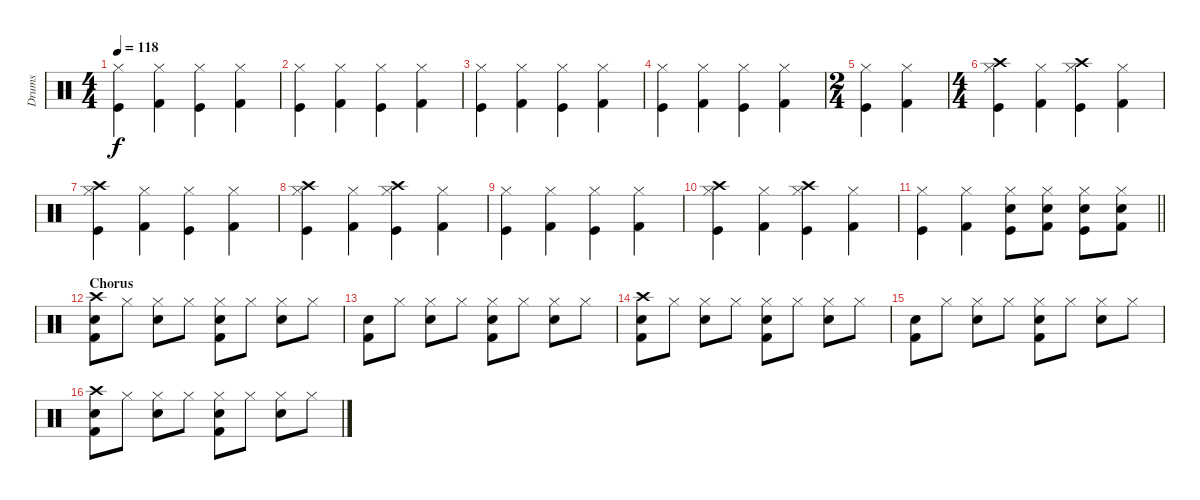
\track ("Drums" "Drums") {instrument percussion}
\staff {score}
\articulation defaults
\ts (4 4)
\tempo 118
\clef neutral
\ks c
("Kick (hit)" "Hi-Hat (closed)").4{dy f} ("Hi-Hat (closed)" "Kick (hit) 2").4 ("Kick (hit)" "Hi-Hat (closed)").4 ("Hi-Hat (closed)" "Kick (hit) 2").4 |
("Kick (hit)" "Hi-Hat (closed)").4 ("Hi-Hat (closed)" "Kick (hit) 2").4 ("Kick (hit)" "Hi-Hat (closed)").4 ("Hi-Hat (closed)" "Kick (hit) 2").4 |
("Kick (hit)" "Hi-Hat (closed)").4 ("Hi-Hat (closed)" "Kick (hit) 2").4 ("Kick (hit)" "Hi-Hat (closed)").4 ("Hi-Hat (closed)" "Kick (hit) 2").4 |
("Kick (hit)" "Hi-Hat (closed)").4 ("Hi-Hat (closed)" "Kick (hit) 2").4 ("Kick (hit)" "Hi-Hat (closed)").4 ("Hi-Hat (closed)" "Kick (hit) 2").4 |
\ts (2 4)
("Kick (hit)" "Hi-Hat (closed)").4 ("Hi-Hat (closed)" "Kick (hit) 2").4 |
\ts (4 4)
("Crash high (hit)" "Kick (hit)" "Hi-Hat (closed)").4 ("Hi-Hat (closed)" "Kick (hit) 2").4 ("Crash high (hit)" "Kick (hit)" "Hi-Hat (closed)").4 ("Hi-Hat (closed)" "Kick (hit) 2").4 |
("Crash high (hit)" "Kick (hit)" "Hi-Hat (closed)").4 ("Hi-Hat (closed)" "Kick (hit) 2").4 ("Kick (hit)" "Hi-Hat (closed)").4 ("Hi-Hat (closed)" "Kick (hit) 2").4 |
("Crash high (hit)" "Kick (hit)" "Hi-Hat (closed)").4 ("Hi-Hat (closed)" "Kick (hit) 2").4 ("Crash high (hit)" "Kick (hit)" "Hi-Hat (closed)").4 ("Hi-Hat (closed)" "Kick (hit) 2").4 |
("Kick (hit)" "Hi-Hat (closed)").4 ("Hi-Hat (closed)" "Kick (hit) 2").4 ("Kick (hit)" "Hi-Hat (closed)").4 ("Hi-Hat (closed)" "Kick (hit) 2").4 |
("Crash high (hit)" "Kick (hit)" "Hi-Hat (closed)").4 ("Hi-Hat (closed)" "Kick (hit) 2").4 ("Crash high (hit)" "Kick (hit)" "Hi-Hat (closed)").4 ("Hi-Hat (closed)" "Kick (hit) 2").4 |
\barLineRight lightlight
("Kick (hit)" "Hi-Hat (closed)").4 ("Hi-Hat (closed)" "Kick (hit) 2").4 ("Electric Snare (hit)" "Kick (hit)" "Hi-Hat (closed)").8 ("Electric Snare (hit)" "Hi-Hat (closed)" "Kick (hit) 2").8 ("Electric Snare (hit)" "Kick (hit)" "Hi-Hat (closed)").8 ("Electric Snare (hit)" "Hi-Hat (closed)" "Kick (hit) 2").8 |
\section ("" "Chorus")
("Electric Snare (hit)" "Kick (hit) 2" "Crash high (hit)").8 "Hi-Hat (closed)".8 ("Hi-Hat (closed)" "Electric Snare (hit)").8 "Hi-Hat (closed)".8 ("Hi-Hat (closed)" "Kick (hit) 2" "Electric Snare (hit)").8 "Hi-Hat (closed)".8 ("Hi-Hat (closed)" "Electric Snare (hit)").8 "Hi-Hat (closed)".8 |
("Electric Snare (hit)" "Kick (hit) 2").8 "Hi-Hat (closed)".8 ("Hi-Hat (closed)" "Electric Snare (hit)").8 "Hi-Hat (closed)".8 ("Hi-Hat (closed)" "Kick (hit) 2" "Electric Snare (hit)").8 "Hi-Hat (closed)".8 ("Hi-Hat (closed)" "Electric Snare (hit)").8 "Hi-Hat (closed)".8 |
("Electric Snare (hit)" "Kick (hit) 2" "Crash high (hit)").8 "Hi-Hat (closed)".8 ("Hi-Hat (closed)" "Electric Snare (hit)").8 "Hi-Hat (closed)".8 ("Hi-Hat (closed)" "Kick (hit) 2" "Electric Snare (hit)").8 "Hi-Hat (closed)".8 ("Hi-Hat (closed)" "Electric Snare (hit)").8 "Hi-Hat (closed)".8 |
("Electric Snare (hit)" "Kick (hit) 2").8 "Hi-Hat (closed)".8 ("Hi-Hat (closed)" "Electric Snare (hit)").8 "Hi-Hat (closed)".8 ("Hi-Hat (closed)" "Kick (hit) 2" "Electric Snare (hit)").8 "Hi-Hat (closed)".8 ("Hi-Hat (closed)" "Electric Snare (hit)").8 "Hi-Hat (closed)".8 |
("Electric Snare (hit)" "Kick (hit) 2" "Crash high (hit)").8 "Hi-Hat (closed)".8 ("Hi-Hat (closed)" "Electric Snare (hit)").8 "Hi-Hat (closed)".8 ("Hi-Hat (closed)" "Kick (hit) 2" "Electric Snare (hit)").8 "Hi-Hat (closed)".8 ("Hi-Hat (closed)" "Electric Snare (hit)").8 "Hi-Hat (closed)".8
